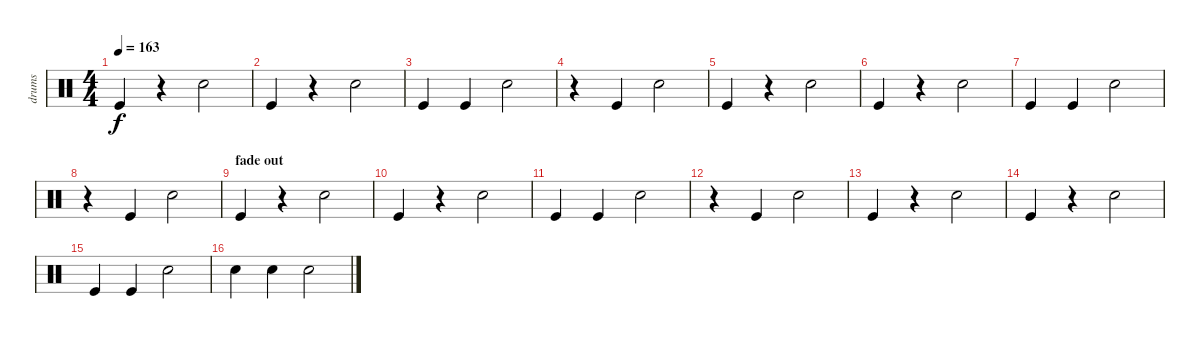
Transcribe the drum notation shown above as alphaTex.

\track ("drums" "drums") {instrument percussion}
\staff {score}
\articulation defaults
\ts (4 4)
\tempo 163
\clef neutral
\ks c "Kick (hit)".4{dy f}
r.4 "Snare (hit) 2".2 |
"Kick (hit)".4 r.4 "Snare (hit) 2".2 |
"Kick (hit)".4 "Kick (hit)".4 "Snare (hit) 2".2 |
r.4 "Kick (hit)".4 "Snare (hit) 2".2 |
"Kick (hit)".4 r.4 "Snare (hit) 2".2 |
"Kick (hit)".4 r.4 "Snare (hit) 2".2 |
"Kick (hit)".4 "Kick (hit)".4 "Snare (hit) 2".2 |
r.4 "Kick (hit)".4 "Snare (hit) 2".2 |
\section ("" "fade out")
"Kick (hit)".4 r.4 "Snare (hit) 2".2 |
"Kick (hit)".4 r.4 "Snare (hit) 2".2 |
"Kick (hit)".4 "Kick (hit)".4 "Snare (hit) 2".2 |
r.4 "Kick (hit)".4 "Snare (hit) 2".2 |
"Kick (hit)".4 r.4 "Snare (hit) 2".2 |
"Kick (hit)".4 r.4 "Snare (hit) 2".2 |
"Kick (hit)".4 "Kick (hit)".4 "Snare (hit) 2".2 |
"Snare (hit) 2".4 "Snare (hit) 2".4 "Snare (hit) 2".2
